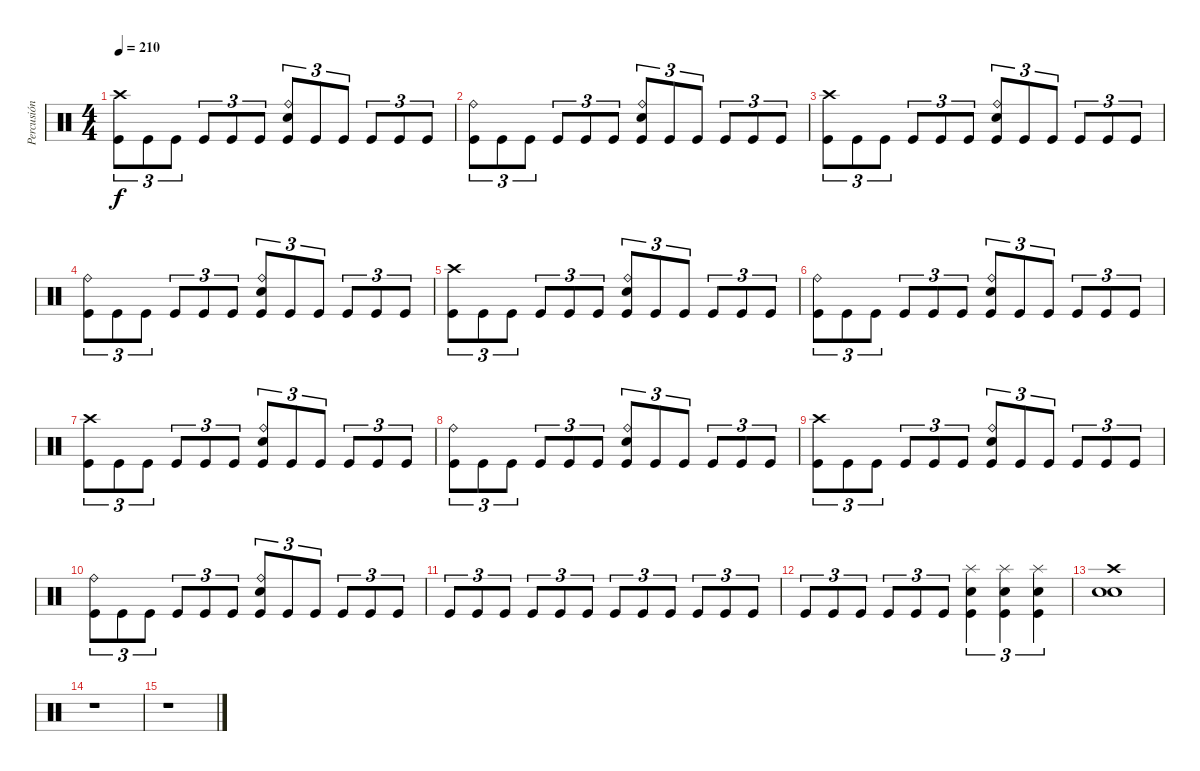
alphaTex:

\track ("Percusión" "Percusión") {instrument percussion}
\staff {score}
\articulation defaults
\ts (4 4)
\tempo 210
\clef neutral
\ks c
("Crash high (hit)" "Kick (hit)").8{tu (3 2) dy f} "Kick (hit)".8{tu (3 2)} "Kick (hit)".8{tu (3 2)} "Kick (hit)".8{tu (3 2)} "Kick (hit)".8{tu (3 2)} "Kick (hit)".8{tu (3 2)} ("Ride (bell)" "Snare (hit) 2" "Kick (hit)").8{tu (3 2)} "Kick (hit)".8{tu (3 2)} "Kick (hit)".8{tu (3 2)} "Kick (hit)".8{tu (3 2)} "Kick (hit)".8{tu (3 2)} "Kick (hit)".8{tu (3 2)} |
("Ride (bell)" "Kick (hit)").8{tu (3 2)} "Kick (hit)".8{tu (3 2)} "Kick (hit)".8{tu (3 2)} "Kick (hit)".8{tu (3 2)} "Kick (hit)".8{tu (3 2)} "Kick (hit)".8{tu (3 2)} ("Ride (bell)" "Snare (hit) 2" "Kick (hit)").8{tu (3 2)} "Kick (hit)".8{tu (3 2)} "Kick (hit)".8{tu (3 2)} "Kick (hit)".8{tu (3 2)} "Kick (hit)".8{tu (3 2)} "Kick (hit)".8{tu (3 2)} |
("Crash high (hit)" "Kick (hit)").8{tu (3 2)} "Kick (hit)".8{tu (3 2)} "Kick (hit)".8{tu (3 2)} "Kick (hit)".8{tu (3 2)} "Kick (hit)".8{tu (3 2)} "Kick (hit)".8{tu (3 2)} ("Ride (bell)" "Snare (hit) 2" "Kick (hit)").8{tu (3 2)} "Kick (hit)".8{tu (3 2)} "Kick (hit)".8{tu (3 2)} "Kick (hit)".8{tu (3 2)} "Kick (hit)".8{tu (3 2)} "Kick (hit)".8{tu (3 2)} |
("Ride (bell)" "Kick (hit)").8{tu (3 2)} "Kick (hit)".8{tu (3 2)} "Kick (hit)".8{tu (3 2)} "Kick (hit)".8{tu (3 2)} "Kick (hit)".8{tu (3 2)} "Kick (hit)".8{tu (3 2)} ("Ride (bell)" "Snare (hit) 2" "Kick (hit)").8{tu (3 2)} "Kick (hit)".8{tu (3 2)} "Kick (hit)".8{tu (3 2)} "Kick (hit)".8{tu (3 2)} "Kick (hit)".8{tu (3 2)} "Kick (hit)".8{tu (3 2)} |
("Crash high (hit)" "Kick (hit)").8{tu (3 2)} "Kick (hit)".8{tu (3 2)} "Kick (hit)".8{tu (3 2)} "Kick (hit)".8{tu (3 2)} "Kick (hit)".8{tu (3 2)} "Kick (hit)".8{tu (3 2)} ("Ride (bell)" "Snare (hit) 2" "Kick (hit)").8{tu (3 2)} "Kick (hit)".8{tu (3 2)} "Kick (hit)".8{tu (3 2)} "Kick (hit)".8{tu (3 2)} "Kick (hit)".8{tu (3 2)} "Kick (hit)".8{tu (3 2)} |
("Ride (bell)" "Kick (hit)").8{tu (3 2)} "Kick (hit)".8{tu (3 2)} "Kick (hit)".8{tu (3 2)} "Kick (hit)".8{tu (3 2)} "Kick (hit)".8{tu (3 2)} "Kick (hit)".8{tu (3 2)} ("Ride (bell)" "Snare (hit) 2" "Kick (hit)").8{tu (3 2)} "Kick (hit)".8{tu (3 2)} "Kick (hit)".8{tu (3 2)} "Kick (hit)".8{tu (3 2)} "Kick (hit)".8{tu (3 2)} "Kick (hit)".8{tu (3 2)} |
("Crash high (hit)" "Kick (hit)").8{tu (3 2)} "Kick (hit)".8{tu (3 2)} "Kick (hit)".8{tu (3 2)} "Kick (hit)".8{tu (3 2)} "Kick (hit)".8{tu (3 2)} "Kick (hit)".8{tu (3 2)} ("Ride (bell)" "Snare (hit) 2" "Kick (hit)").8{tu (3 2)} "Kick (hit)".8{tu (3 2)} "Kick (hit)".8{tu (3 2)} "Kick (hit)".8{tu (3 2)} "Kick (hit)".8{tu (3 2)} "Kick (hit)".8{tu (3 2)} |
("Ride (bell)" "Kick (hit)").8{tu (3 2)} "Kick (hit)".8{tu (3 2)} "Kick (hit)".8{tu (3 2)} "Kick (hit)".8{tu (3 2)} "Kick (hit)".8{tu (3 2)} "Kick (hit)".8{tu (3 2)} ("Ride (bell)" "Snare (hit) 2" "Kick (hit)").8{tu (3 2)} "Kick (hit)".8{tu (3 2)} "Kick (hit)".8{tu (3 2)} "Kick (hit)".8{tu (3 2)} "Kick (hit)".8{tu (3 2)} "Kick (hit)".8{tu (3 2)} |
("Crash high (hit)" "Kick (hit)").8{tu (3 2)} "Kick (hit)".8{tu (3 2)} "Kick (hit)".8{tu (3 2)} "Kick (hit)".8{tu (3 2)} "Kick (hit)".8{tu (3 2)} "Kick (hit)".8{tu (3 2)} ("Ride (bell)" "Snare (hit) 2" "Kick (hit)").8{tu (3 2)} "Kick (hit)".8{tu (3 2)} "Kick (hit)".8{tu (3 2)} "Kick (hit)".8{tu (3 2)} "Kick (hit)".8{tu (3 2)} "Kick (hit)".8{tu (3 2)} |
("Ride (bell)" "Kick (hit)").8{tu (3 2)} "Kick (hit)".8{tu (3 2)} "Kick (hit)".8{tu (3 2)} "Kick (hit)".8{tu (3 2)} "Kick (hit)".8{tu (3 2)} "Kick (hit)".8{tu (3 2)} ("Ride (bell)" "Snare (hit) 2" "Kick (hit)").8{tu (3 2)} "Kick (hit)".8{tu (3 2)} "Kick (hit)".8{tu (3 2)} "Kick (hit)".8{tu (3 2)} "Kick (hit)".8{tu (3 2)} "Kick (hit)".8{tu (3 2)} |
"Kick (hit)".8{tu (3 2)} "Kick (hit)".8{tu (3 2)} "Kick (hit)".8{tu (3 2)} "Kick (hit)".8{tu (3 2)} "Kick (hit)".8{tu (3 2)} "Kick (hit)".8{tu (3 2)} "Kick (hit)".8{tu (3 2)} "Kick (hit)".8{tu (3 2)} "Kick (hit)".8{tu (3 2)} "Kick (hit)".8{tu (3 2)} "Kick (hit)".8{tu (3 2)} "Kick (hit)".8{tu (3 2)} |
"Kick (hit)".8{tu (3 2)} "Kick (hit)".8{tu (3 2)} "Kick (hit)".8{tu (3 2)} "Kick (hit)".8{tu (3 2)} "Kick (hit)".8{tu (3 2)} "Kick (hit)".8{tu (3 2)} ("Splash (hit)" "Snare (hit) 2" "Kick (hit)").4{tu (3 2)} ("Splash (hit)" "Snare (hit) 2" "Kick (hit)").4{tu (3 2)} ("Splash (hit)" "Snare (hit) 2" "Kick (hit)").4{tu (3 2)} |
("Crash high (hit)" "Snare (hit) 2" "Snare (hit) 2").1 |
r.1 |
r.1
